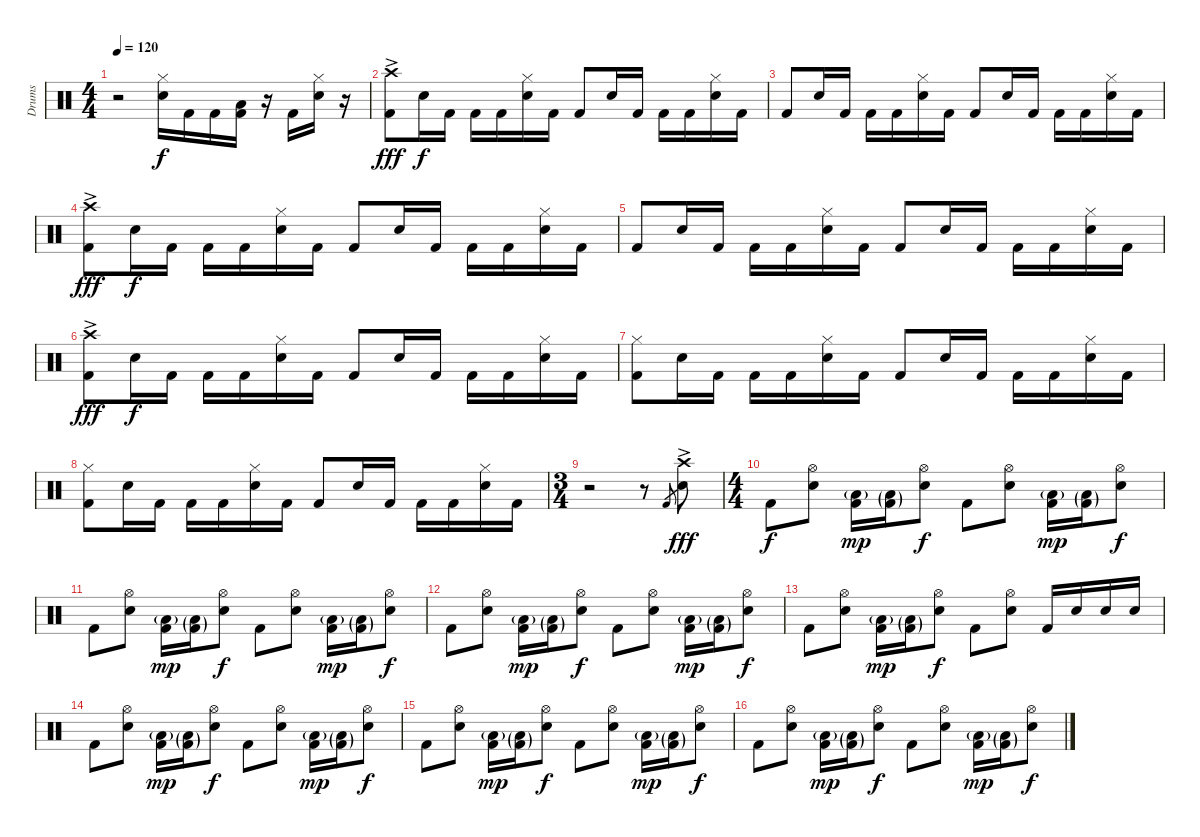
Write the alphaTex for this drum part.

\track ("Drums" "Drums") {instrument percussion}
\staff {score}
\articulation defaults
\ts (4 4)
\tempo 120
\clef neutral
\ks c
r.2{dy f} ("Hi-Hat (closed)" "Snare (hit) 2").16 "Kick (hit) 2".16 "Kick (hit) 2".16 ("Kick (hit) 2" "Low Floor Tom (hit)").16 r.16 "Kick (hit) 2".16 ("Hi-Hat (closed)" "Snare (hit) 2").16 r.16 |
("Crash high (hit)"{ac} "Kick (hit) 2").8{dy fff} "Snare (hit) 2".16{dy f} "Kick (hit) 2".16 "Kick (hit) 2".16 "Kick (hit) 2".16 ("Hi-Hat (closed)" "Snare (hit) 2").16 "Kick (hit) 2".16 "Kick (hit) 2".8 "Snare (hit) 2".16 "Kick (hit) 2".16 "Kick (hit) 2".16 "Kick (hit) 2".16 ("Hi-Hat (closed)" "Snare (hit) 2").16 "Kick (hit) 2".16 |
"Kick (hit) 2".8 "Snare (hit) 2".16 "Kick (hit) 2".16 "Kick (hit) 2".16 "Kick (hit) 2".16 ("Hi-Hat (closed)" "Snare (hit) 2").16 "Kick (hit) 2".16 "Kick (hit) 2".8 "Snare (hit) 2".16 "Kick (hit) 2".16 "Kick (hit) 2".16 "Kick (hit) 2".16 ("Hi-Hat (closed)" "Snare (hit) 2").16 "Kick (hit) 2".16 |
("Crash high (hit)"{ac} "Kick (hit) 2").8{dy fff} "Snare (hit) 2".16{dy f} "Kick (hit) 2".16 "Kick (hit) 2".16 "Kick (hit) 2".16 ("Hi-Hat (closed)" "Snare (hit) 2").16 "Kick (hit) 2".16 "Kick (hit) 2".8 "Snare (hit) 2".16 "Kick (hit) 2".16 "Kick (hit) 2".16 "Kick (hit) 2".16 ("Hi-Hat (closed)" "Snare (hit) 2").16 "Kick (hit) 2".16 |
"Kick (hit) 2".8 "Snare (hit) 2".16 "Kick (hit) 2".16 "Kick (hit) 2".16 "Kick (hit) 2".16 ("Hi-Hat (closed)" "Snare (hit) 2").16 "Kick (hit) 2".16 "Kick (hit) 2".8 "Snare (hit) 2".16 "Kick (hit) 2".16 "Kick (hit) 2".16 "Kick (hit) 2".16 ("Hi-Hat (closed)" "Snare (hit) 2").16 "Kick (hit) 2".16 |
("Crash high (hit)"{ac} "Kick (hit) 2").8{dy fff} "Snare (hit) 2".16{dy f} "Kick (hit) 2".16 "Kick (hit) 2".16 "Kick (hit) 2".16 ("Hi-Hat (closed)" "Snare (hit) 2").16 "Kick (hit) 2".16 "Kick (hit) 2".8 "Snare (hit) 2".16 "Kick (hit) 2".16 "Kick (hit) 2".16 "Kick (hit) 2".16 ("Hi-Hat (closed)" "Snare (hit) 2").16 "Kick (hit) 2".16 |
("Hi-Hat (closed)" "Kick (hit) 2").8 "Snare (hit) 2".16 "Kick (hit) 2".16 "Kick (hit) 2".16 "Kick (hit) 2".16 ("Hi-Hat (closed)" "Snare (hit) 2").16 "Kick (hit) 2".16 "Kick (hit) 2".8 "Snare (hit) 2".16 "Kick (hit) 2".16 "Kick (hit) 2".16 "Kick (hit) 2".16 ("Hi-Hat (closed)" "Snare (hit) 2").16 "Kick (hit) 2".16 |
("Hi-Hat (closed)" "Kick (hit) 2").8 "Snare (hit) 2".16 "Kick (hit) 2".16 "Kick (hit) 2".16 "Kick (hit) 2".16 ("Hi-Hat (closed)" "Snare (hit) 2").16 "Kick (hit) 2".16 "Kick (hit) 2".8 "Snare (hit) 2".16 "Kick (hit) 2".16 "Kick (hit) 2".16 "Kick (hit) 2".16 ("Hi-Hat (closed)" "Snare (hit) 2").16 "Kick (hit) 2".16 |
\ts (3 4)
r.2 r.8 "Kick (hit) 2".8{gr} ("Crash high (hit)"{ac} "Snare (hit) 2").8{dy fff} |
\ts (4 4)
"Kick (hit) 2".8{dy f} ("Hi-Hat (open)" "Snare (hit) 2").8 ("Kick (hit) 2" "Low Floor Tom (hit)"{g}).16{dy mp} ("Kick (hit) 2"{g} "Low Floor Tom (hit)"{g}).16 ("Hi-Hat (open)" "Snare (hit) 2").8{dy f} "Kick (hit) 2".8 ("Hi-Hat (open)" "Snare (hit) 2").8 ("Kick (hit) 2" "Low Floor Tom (hit)"{g}).16{dy mp} ("Kick (hit) 2"{g} "Low Floor Tom (hit)"{g}).16 ("Hi-Hat (open)" "Snare (hit) 2").8{dy f} |
"Kick (hit) 2".8 ("Hi-Hat (open)" "Snare (hit) 2").8 ("Kick (hit) 2" "Low Floor Tom (hit)"{g}).16{dy mp} ("Kick (hit) 2"{g} "Low Floor Tom (hit)"{g}).16 ("Hi-Hat (open)" "Snare (hit) 2").8{dy f} "Kick (hit) 2".8 ("Hi-Hat (open)" "Snare (hit) 2").8 ("Kick (hit) 2" "Low Floor Tom (hit)"{g}).16{dy mp} ("Kick (hit) 2"{g} "Low Floor Tom (hit)"{g}).16 ("Hi-Hat (open)" "Snare (hit) 2").8{dy f} |
"Kick (hit) 2".8 ("Hi-Hat (open)" "Snare (hit) 2").8 ("Kick (hit) 2" "Low Floor Tom (hit)"{g}).16{dy mp} ("Kick (hit) 2"{g} "Low Floor Tom (hit)"{g}).16 ("Hi-Hat (open)" "Snare (hit) 2").8{dy f} "Kick (hit) 2".8 ("Hi-Hat (open)" "Snare (hit) 2").8 ("Kick (hit) 2" "Low Floor Tom (hit)"{g}).16{dy mp} ("Kick (hit) 2"{g} "Low Floor Tom (hit)"{g}).16 ("Hi-Hat (open)" "Snare (hit) 2").8{dy f} |
"Kick (hit) 2".8 ("Hi-Hat (open)" "Snare (hit) 2").8 ("Kick (hit) 2" "Low Floor Tom (hit)"{g}).16{dy mp} ("Kick (hit) 2"{g} "Low Floor Tom (hit)"{g}).16 ("Hi-Hat (open)" "Snare (hit) 2").8{dy f} "Kick (hit) 2".8 ("Hi-Hat (open)" "Snare (hit) 2").8 "Kick (hit) 2".16 "Snare (hit) 2".16 "Snare (hit) 2".16 "Snare (hit) 2".16 |
"Kick (hit) 2".8 ("Hi-Hat (open)" "Snare (hit) 2").8 ("Kick (hit) 2" "Low Floor Tom (hit)"{g}).16{dy mp} ("Kick (hit) 2"{g} "Low Floor Tom (hit)"{g}).16 ("Hi-Hat (open)" "Snare (hit) 2").8{dy f} "Kick (hit) 2".8 ("Hi-Hat (open)" "Snare (hit) 2").8 ("Kick (hit) 2" "Low Floor Tom (hit)"{g}).16{dy mp} ("Kick (hit) 2"{g} "Low Floor Tom (hit)"{g}).16 ("Hi-Hat (open)" "Snare (hit) 2").8{dy f} |
"Kick (hit) 2".8 ("Hi-Hat (open)" "Snare (hit) 2").8 ("Kick (hit) 2" "Low Floor Tom (hit)"{g}).16{dy mp} ("Kick (hit) 2"{g} "Low Floor Tom (hit)"{g}).16 ("Hi-Hat (open)" "Snare (hit) 2").8{dy f} "Kick (hit) 2".8 ("Hi-Hat (open)" "Snare (hit) 2").8 ("Kick (hit) 2" "Low Floor Tom (hit)"{g}).16{dy mp} ("Kick (hit) 2"{g} "Low Floor Tom (hit)"{g}).16 ("Hi-Hat (open)" "Snare (hit) 2").8{dy f} |
"Kick (hit) 2".8 ("Hi-Hat (open)" "Snare (hit) 2").8 ("Kick (hit) 2" "Low Floor Tom (hit)"{g}).16{dy mp} ("Kick (hit) 2"{g} "Low Floor Tom (hit)"{g}).16 ("Hi-Hat (open)" "Snare (hit) 2").8{dy f} "Kick (hit) 2".8 ("Hi-Hat (open)" "Snare (hit) 2").8 ("Kick (hit) 2" "Low Floor Tom (hit)"{g}).16{dy mp} ("Kick (hit) 2"{g} "Low Floor Tom (hit)"{g}).16 ("Hi-Hat (open)" "Snare (hit) 2").8{dy f}
